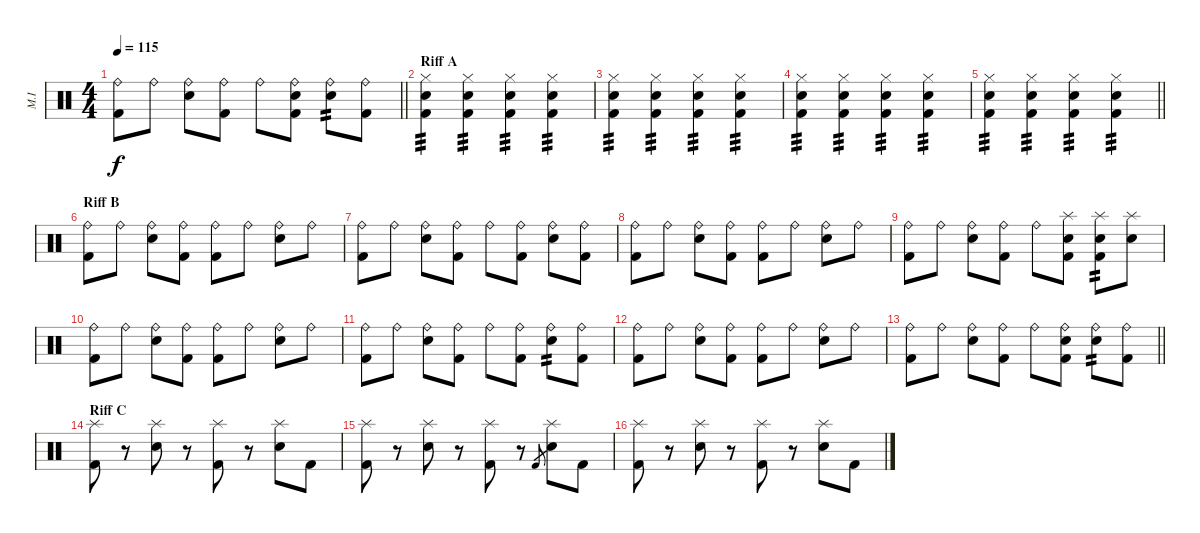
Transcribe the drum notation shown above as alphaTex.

\track ("M.I" "M.I") {instrument percussion}
\staff {score}
\articulation defaults
\ts (4 4)
\tempo 115
\clef neutral
\barLineRight lightlight
\ks c
("Ride (bell)" "Kick (hit) 2").8{dy f} "Ride (bell)".8 ("Ride (bell)" "Snare (hit) 2").8 ("Ride (bell)" "Kick (hit) 2").8 "Ride (bell)".8 ("Ride (bell)" "Snare (hit) 2" "Kick (hit) 2").8 ("Ride (bell)" "Snare (hit) 2").8{tp 2} ("Ride (bell)" "Kick (hit) 2").8 |
\section ("" "Riff A")
("Hi-Hat (closed)" "Snare (hit) 2" "Kick (hit) 2").4{tp 3} ("Hi-Hat (closed)" "Snare (hit) 2" "Kick (hit) 2").4{tp 3} ("Hi-Hat (closed)" "Snare (hit) 2" "Kick (hit) 2").4{tp 3} ("Hi-Hat (closed)" "Snare (hit) 2" "Kick (hit) 2").4{tp 3} |
("Hi-Hat (closed)" "Snare (hit) 2" "Kick (hit) 2").4{tp 3} ("Hi-Hat (closed)" "Snare (hit) 2" "Kick (hit) 2").4{tp 3} ("Hi-Hat (closed)" "Snare (hit) 2" "Kick (hit) 2").4{tp 3} ("Hi-Hat (closed)" "Snare (hit) 2" "Kick (hit) 2").4{tp 3} |
("Hi-Hat (closed)" "Snare (hit) 2" "Kick (hit) 2").4{tp 3} ("Hi-Hat (closed)" "Snare (hit) 2" "Kick (hit) 2").4{tp 3} ("Hi-Hat (closed)" "Snare (hit) 2" "Kick (hit) 2").4{tp 3} ("Hi-Hat (closed)" "Snare (hit) 2" "Kick (hit) 2").4{tp 3} |
\barLineRight lightlight
("Hi-Hat (closed)" "Snare (hit) 2" "Kick (hit) 2").4{tp 3} ("Hi-Hat (closed)" "Snare (hit) 2" "Kick (hit) 2").4{tp 3} ("Hi-Hat (closed)" "Snare (hit) 2" "Kick (hit) 2").4{tp 3} ("Hi-Hat (closed)" "Snare (hit) 2" "Kick (hit) 2").4{tp 3} |
\section ("" "Riff B")
("Ride (bell)" "Kick (hit) 2").8 "Ride (bell)".8 ("Ride (bell)" "Snare (hit) 2").8 ("Ride (bell)" "Kick (hit) 2").8 ("Ride (bell)" "Kick (hit) 2").8 "Ride (bell)".8 ("Ride (bell)" "Snare (hit) 2").8 "Ride (bell)".8 |
("Ride (bell)" "Kick (hit) 2").8 "Ride (bell)".8 ("Ride (bell)" "Snare (hit) 2").8 ("Ride (bell)" "Kick (hit) 2").8 "Ride (bell)".8 ("Ride (bell)" "Kick (hit) 2").8 ("Ride (bell)" "Snare (hit) 2").8 ("Ride (bell)" "Kick (hit) 2").8 |
("Ride (bell)" "Kick (hit) 2").8 "Ride (bell)".8 ("Ride (bell)" "Snare (hit) 2").8 ("Ride (bell)" "Kick (hit) 2").8 ("Ride (bell)" "Kick (hit) 2").8 "Ride (bell)".8 ("Ride (bell)" "Snare (hit) 2").8 "Ride (bell)".8 |
("Ride (bell)" "Kick (hit) 2").8 "Ride (bell)".8 ("Ride (bell)" "Snare (hit) 2").8 ("Ride (bell)" "Kick (hit) 2").8 "Ride (bell)".8 ("Splash (hit)" "Snare (hit) 2" "Kick (hit) 2").8 ("Splash (hit)" "Snare (hit) 2" "Kick (hit) 2").8{tp 2} ("Splash (hit)" "Snare (hit) 2").8 |
("Ride (bell)" "Kick (hit) 2").8 "Ride (bell)".8 ("Ride (bell)" "Snare (hit) 2").8 ("Ride (bell)" "Kick (hit) 2").8 ("Ride (bell)" "Kick (hit) 2").8 "Ride (bell)".8 ("Ride (bell)" "Snare (hit) 2").8 "Ride (bell)".8 |
("Ride (bell)" "Kick (hit) 2").8 "Ride (bell)".8 ("Ride (bell)" "Snare (hit) 2").8 ("Ride (bell)" "Kick (hit) 2").8 "Ride (bell)".8 ("Ride (bell)" "Kick (hit) 2").8 ("Ride (bell)" "Snare (hit) 2").8{tp 2} ("Ride (bell)" "Kick (hit) 2").8 |
("Ride (bell)" "Kick (hit) 2").8 "Ride (bell)".8 ("Ride (bell)" "Snare (hit) 2").8 ("Ride (bell)" "Kick (hit) 2").8 ("Ride (bell)" "Kick (hit) 2").8 "Ride (bell)".8 ("Ride (bell)" "Snare (hit) 2").8 "Ride (bell)".8 |
\barLineRight lightlight
("Ride (bell)" "Kick (hit) 2").8 "Ride (bell)".8 ("Ride (bell)" "Snare (hit) 2").8 ("Ride (bell)" "Kick (hit) 2").8 "Ride (bell)".8 ("Ride (bell)" "Snare (hit) 2" "Kick (hit) 2").8 ("Ride (bell)" "Snare (hit) 2").8{tp 2} ("Ride (bell)" "Kick (hit) 2").8 |
\section ("" "Riff C")
("Splash (hit)" "Kick (hit) 2").8 r.8 ("Splash (hit)" "Snare (hit) 2").8 r.8 ("Splash (hit)" "Kick (hit) 2").8 r.8 ("Splash (hit)" "Snare (hit) 2").8 "Kick (hit) 2".8 |
("Splash (hit)" "Kick (hit) 2").8 r.8 ("Splash (hit)" "Snare (hit) 2").8 r.8 ("Splash (hit)" "Kick (hit) 2").8 r.8 "Kick (hit) 2".8{gr} ("Splash (hit)" "Snare (hit) 2").8 "Kick (hit) 2".8 |
("Splash (hit)" "Kick (hit) 2").8 r.8 ("Splash (hit)" "Snare (hit) 2").8 r.8 ("Splash (hit)" "Kick (hit) 2").8 r.8 ("Splash (hit)" "Snare (hit) 2").8 "Kick (hit) 2".8
